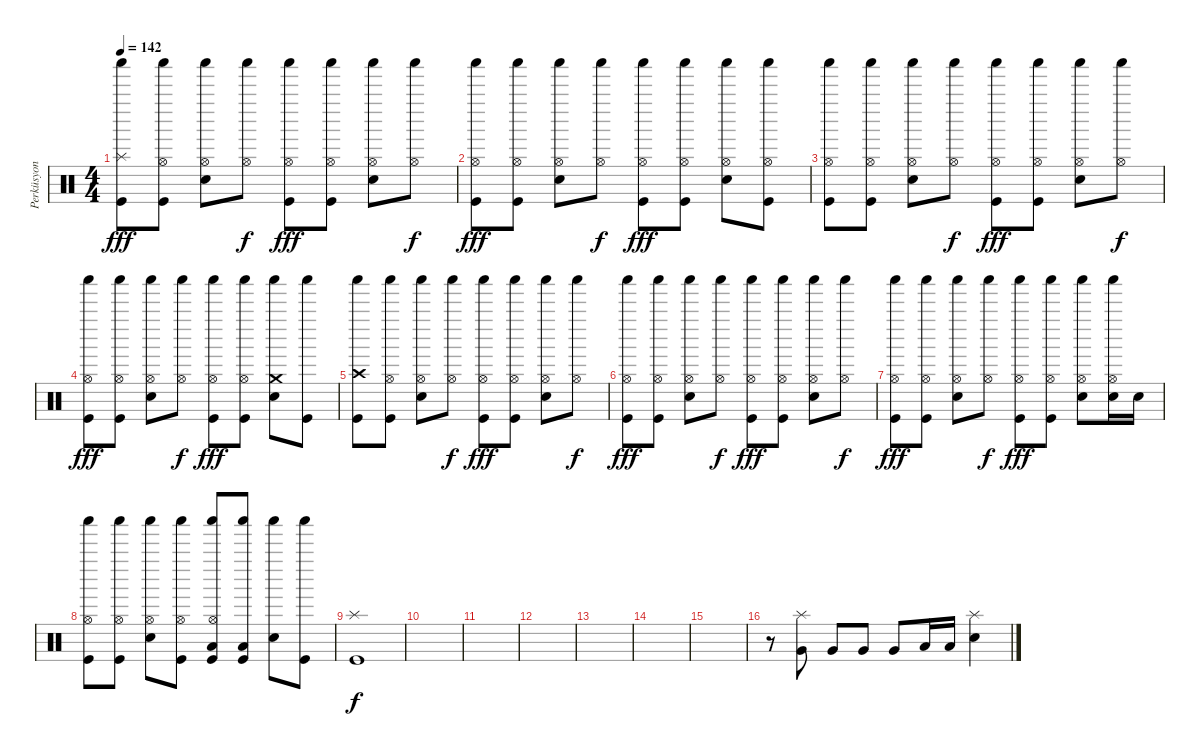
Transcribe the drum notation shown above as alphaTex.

\track ("Perküsyon" "Perküsyon") {instrument percussion}
\staff {score}
\articulation defaults
\ts (4 4)
\tempo 142
\clef neutral
\ks c
("Kick (hit)" "Splash (hit)" "Shaker (hit)").8{dy fff} ("Kick (hit)" "Hi-Hat (open)" "Shaker (hit)").8 ("Snare (hit) 2" "Hi-Hat (open)" "Shaker (hit)").8 ("Hi-Hat (open)" "Shaker (hit)").8{dy f} ("Kick (hit)" "Hi-Hat (open)" "Shaker (hit)").8{dy fff} ("Kick (hit)" "Hi-Hat (open)" "Shaker (hit)").8 ("Snare (hit) 2" "Hi-Hat (open)" "Shaker (hit)").8 ("Hi-Hat (open)" "Shaker (hit)").8{dy f} |
("Kick (hit)" "Hi-Hat (open)" "Shaker (hit)").8{dy fff} ("Kick (hit)" "Hi-Hat (open)" "Shaker (hit)").8 ("Snare (hit) 2" "Hi-Hat (open)" "Shaker (hit)").8 ("Hi-Hat (open)" "Shaker (hit)").8{dy f} ("Kick (hit)" "Hi-Hat (open)" "Shaker (hit)").8{dy fff} ("Kick (hit)" "Hi-Hat (open)" "Shaker (hit)").8 ("Snare (hit) 2" "Hi-Hat (open)" "Shaker (hit)").8 ("Kick (hit)" "Hi-Hat (open)" "Shaker (hit)").8 |
("Kick (hit)" "Hi-Hat (open)" "Shaker (hit)").8 ("Kick (hit)" "Hi-Hat (open)" "Shaker (hit)").8 ("Snare (hit) 2" "Hi-Hat (open)" "Shaker (hit)").8 ("Hi-Hat (open)" "Shaker (hit)").8{dy f} ("Kick (hit)" "Hi-Hat (open)" "Shaker (hit)").8{dy fff} ("Kick (hit)" "Hi-Hat (open)" "Shaker (hit)").8 ("Snare (hit) 2" "Hi-Hat (open)" "Shaker (hit)").8 ("Hi-Hat (open)" "Shaker (hit)").8{dy f} |
("Kick (hit)" "Hi-Hat (open)" "Shaker (hit)").8{dy fff} ("Kick (hit)" "Hi-Hat (open)" "Shaker (hit)").8 ("Snare (hit) 2" "Hi-Hat (open)" "Shaker (hit)").8 ("Hi-Hat (open)" "Shaker (hit)").8{dy f} ("Kick (hit)" "Hi-Hat (open)" "Shaker (hit)").8{dy fff} ("Kick (hit)" "Hi-Hat (open)" "Shaker (hit)").8 ("Snare (hit) 2" "Crash medium (hit)" "Shaker (hit)").8 ("Kick (hit)" "Shaker (hit)").8 |
("Kick (hit)" "Crash high (hit)" "Shaker (hit)").8 ("Kick (hit)" "Hi-Hat (open)" "Shaker (hit)").8 ("Snare (hit) 2" "Hi-Hat (open)" "Shaker (hit)").8 ("Hi-Hat (open)" "Shaker (hit)").8{dy f} ("Kick (hit)" "Hi-Hat (open)" "Shaker (hit)").8{dy fff} ("Kick (hit)" "Hi-Hat (open)" "Shaker (hit)").8 ("Snare (hit) 2" "Hi-Hat (open)" "Shaker (hit)").8 ("Hi-Hat (open)" "Shaker (hit)").8{dy f} |
("Kick (hit)" "Hi-Hat (open)" "Shaker (hit)").8{dy fff} ("Kick (hit)" "Hi-Hat (open)" "Shaker (hit)").8 ("Snare (hit) 2" "Hi-Hat (open)" "Shaker (hit)").8 ("Hi-Hat (open)" "Shaker (hit)").8{dy f} ("Kick (hit)" "Hi-Hat (open)" "Shaker (hit)").8{dy fff} ("Kick (hit)" "Hi-Hat (open)" "Shaker (hit)").8 ("Snare (hit) 2" "Hi-Hat (open)" "Shaker (hit)").8 ("Hi-Hat (open)" "Shaker (hit)").8{dy f} |
("Kick (hit)" "Hi-Hat (open)" "Shaker (hit)").8{dy fff} ("Kick (hit)" "Hi-Hat (open)" "Shaker (hit)").8 ("Snare (hit) 2" "Hi-Hat (open)" "Shaker (hit)").8 ("Hi-Hat (open)" "Shaker (hit)").8{dy f} ("Kick (hit)" "Hi-Hat (open)" "Shaker (hit)").8{dy fff} ("Kick (hit)" "Hi-Hat (open)" "Shaker (hit)").8 ("Snare (hit) 2" "Hi-Hat (open)" "Shaker (hit)").8 ("Snare (hit) 2" "Hi-Hat (open)" "Shaker (hit)").16 "Snare (hit) 2".16 |
("Kick (hit)" "Hi-Hat (open)" "Shaker (hit)").8 ("Kick (hit)" "Hi-Hat (open)" "Shaker (hit)").8 ("Snare (hit) 2" "Hi-Hat (open)" "Shaker (hit)").8 ("Kick (hit)" "Hi-Hat (open)" "Shaker (hit)").8 ("Kick (hit)" "Hi-Hat (open)" "Low Floor Tom (hit)" "Shaker (hit)").8 ("Kick (hit)" "Low Floor Tom (hit)" "Shaker (hit)").8 ("Snare (hit) 2" "Shaker (hit)").8 ("Kick (hit)" "Shaker (hit)").8 |
("Kick (hit)" "Splash (hit)").1{dy f} |
|
|
|
|
|
|
r.8 ("Very Low Tom (hit)" "Splash (hit)").8 "Very Low Tom (hit)".8 "Very Low Tom (hit)".8 "Very Low Tom (hit)".8 "Low Floor Tom (hit)".16 "Low Floor Tom (hit)".16 ("Electric Snare (hit)" "Splash (hit)").4
